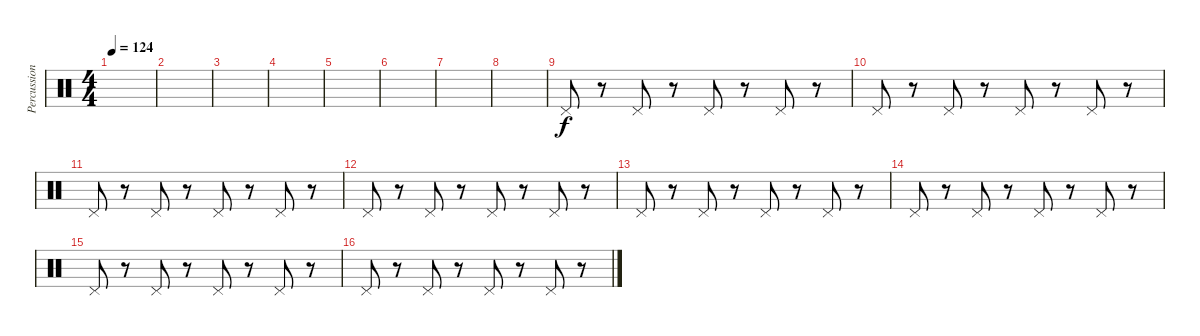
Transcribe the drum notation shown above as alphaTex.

\track ("Percussion" "Percussion") {instrument percussion}
\staff {score}
\articulation defaults
\ts (4 4)
\tempo 124
\clef neutral
\ks c
|
|
|
|
|
|
|
|
"Pedal Hi-Hat (hit)".8 r.8 "Pedal Hi-Hat (hit)".8 r.8 "Pedal Hi-Hat (hit)".8 r.8 "Pedal Hi-Hat (hit)".8 r.8 |
"Pedal Hi-Hat (hit)".8 r.8 "Pedal Hi-Hat (hit)".8 r.8 "Pedal Hi-Hat (hit)".8 r.8 "Pedal Hi-Hat (hit)".8 r.8 |
"Pedal Hi-Hat (hit)".8 r.8 "Pedal Hi-Hat (hit)".8 r.8 "Pedal Hi-Hat (hit)".8 r.8 "Pedal Hi-Hat (hit)".8 r.8 |
"Pedal Hi-Hat (hit)".8 r.8 "Pedal Hi-Hat (hit)".8 r.8 "Pedal Hi-Hat (hit)".8 r.8 "Pedal Hi-Hat (hit)".8 r.8 |
"Pedal Hi-Hat (hit)".8 r.8 "Pedal Hi-Hat (hit)".8 r.8 "Pedal Hi-Hat (hit)".8 r.8 "Pedal Hi-Hat (hit)".8 r.8 |
"Pedal Hi-Hat (hit)".8 r.8 "Pedal Hi-Hat (hit)".8 r.8 "Pedal Hi-Hat (hit)".8 r.8 "Pedal Hi-Hat (hit)".8 r.8 |
"Pedal Hi-Hat (hit)".8 r.8 "Pedal Hi-Hat (hit)".8 r.8 "Pedal Hi-Hat (hit)".8 r.8 "Pedal Hi-Hat (hit)".8 r.8 |
"Pedal Hi-Hat (hit)".8 r.8 "Pedal Hi-Hat (hit)".8 r.8 "Pedal Hi-Hat (hit)".8 r.8 "Pedal Hi-Hat (hit)".8 r.8
